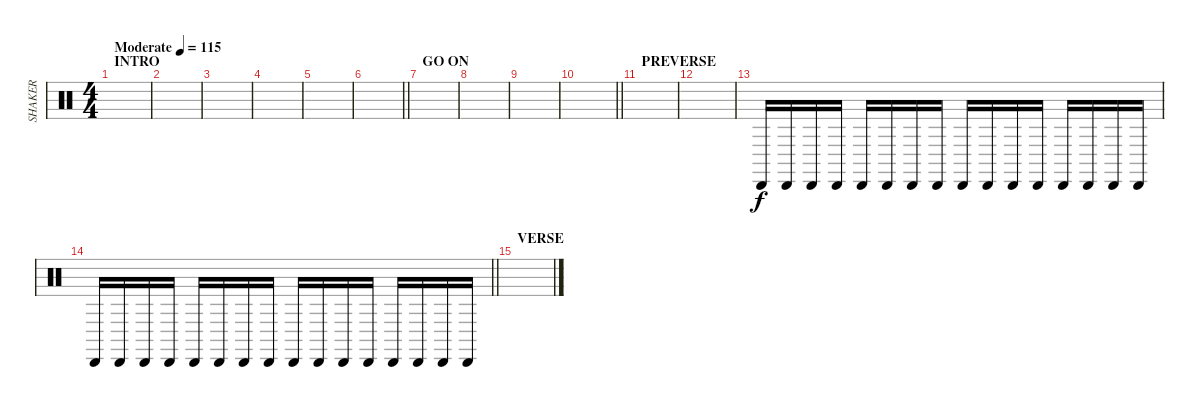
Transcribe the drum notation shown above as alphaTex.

\track ("SHAKER" "SHAKER") {instrument percussion}
\staff {score}
\articulation defaults
\ts (4 4)
\section ("" "INTRO")
\tempo (115 "Moderate")
\clef neutral
\ks c
|
|
|
|
|
\barLineRight lightlight
|
\section ("" "GO ON")
|
|
|
\barLineRight lightlight
|
\section ("" "PREVERSE")
|
|
"Cabasa (hit)".16 "Cabasa (hit)".16 "Cabasa (hit)".16 "Cabasa (hit)".16 "Cabasa (hit)".16 "Cabasa (hit)".16 "Cabasa (hit)".16 "Cabasa (hit)".16 "Cabasa (hit)".16 "Cabasa (hit)".16 "Cabasa (hit)".16 "Cabasa (hit)".16 "Cabasa (hit)".16 "Cabasa (hit)".16 "Cabasa (hit)".16 "Cabasa (hit)".16 |
\barLineRight lightlight "Cabasa (hit)".16 "Cabasa (hit)".16 "Cabasa (hit)".16 "Cabasa (hit)".16 "Cabasa (hit)".16 "Cabasa (hit)".16 "Cabasa (hit)".16 "Cabasa (hit)".16 "Cabasa (hit)".16 "Cabasa (hit)".16 "Cabasa (hit)".16 "Cabasa (hit)".16 "Cabasa (hit)".16 "Cabasa (hit)".16 "Cabasa (hit)".16 "Cabasa (hit)".16
|
\section ("" "VERSE")
